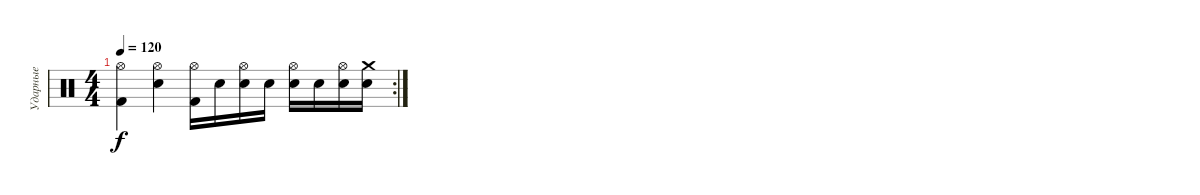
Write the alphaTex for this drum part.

\track ("Ударные" "Ударные") {solo instrument percussion}
\staff {score}
\articulation defaults
\rc 2
\ts (4 4)
\tempo 120
\clef neutral
\ks c
("Kick (hit) 2" "Hi-Hat (open)").4{dy f} ("Snare (hit) 2" "Hi-Hat (open)").4 ("Kick (hit) 2" "Hi-Hat (open)").16 "Snare (hit) 2".16 ("Snare (hit) 2" "Hi-Hat (open)").16 "Snare (hit) 2".16 ("Snare (hit) 2" "Hi-Hat (open)").16 "Snare (hit) 2".16 ("Snare (hit) 2" "Hi-Hat (open)").16 ("Snare (hit) 2" "Crash medium (hit)").16
